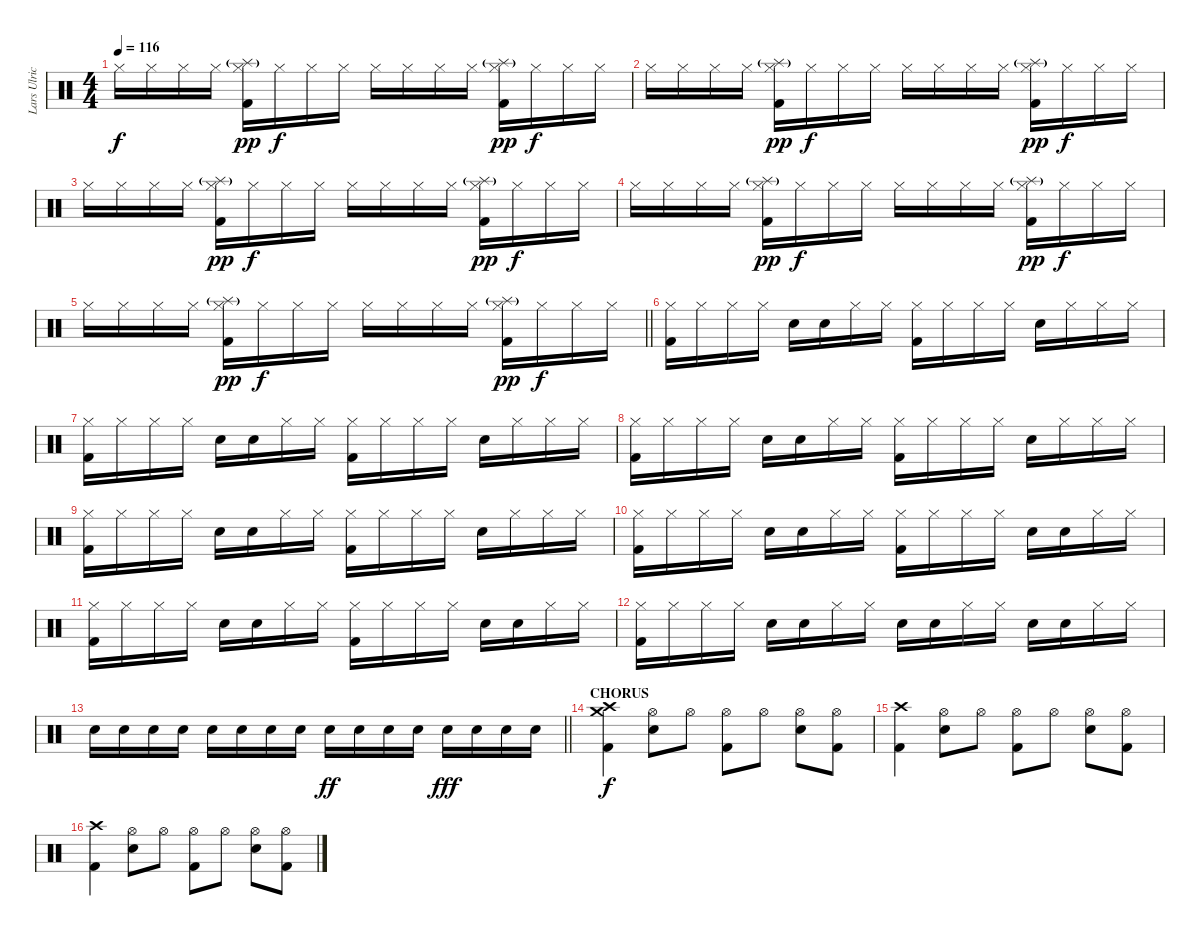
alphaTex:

\track ("Lars Ulrich - drums" "Lars Ulric") {instrument percussion}
\staff {score}
\articulation defaults
\ts (4 4)
\tempo 116
\clef neutral
\ks c "Hi-Hat (closed)".16{dy f} "Hi-Hat (closed)".16 "Hi-Hat (closed)".16 "Hi-Hat (closed)".16
("Splash (hit)"{g} "Hi-Hat (closed)" "Kick (hit) 2").16{dy pp} "Hi-Hat (closed)".16{dy f} "Hi-Hat (closed)".16 "Hi-Hat (closed)".16 "Hi-Hat (closed)".16 "Hi-Hat (closed)".16 "Hi-Hat (closed)".16 "Hi-Hat (closed)".16 ("Splash (hit)"{g} "Hi-Hat (closed)" "Kick (hit) 2").16{dy pp} "Hi-Hat (closed)".16{dy f} "Hi-Hat (closed)".16 "Hi-Hat (closed)".16 |
"Hi-Hat (closed)".16 "Hi-Hat (closed)".16 "Hi-Hat (closed)".16 "Hi-Hat (closed)".16 ("Splash (hit)"{g} "Hi-Hat (closed)" "Kick (hit) 2").16{dy pp} "Hi-Hat (closed)".16{dy f} "Hi-Hat (closed)".16 "Hi-Hat (closed)".16 "Hi-Hat (closed)".16 "Hi-Hat (closed)".16 "Hi-Hat (closed)".16 "Hi-Hat (closed)".16 ("Splash (hit)"{g} "Hi-Hat (closed)" "Kick (hit) 2").16{dy pp} "Hi-Hat (closed)".16{dy f} "Hi-Hat (closed)".16 "Hi-Hat (closed)".16 |
"Hi-Hat (closed)".16 "Hi-Hat (closed)".16 "Hi-Hat (closed)".16 "Hi-Hat (closed)".16 ("Splash (hit)"{g} "Hi-Hat (closed)" "Kick (hit) 2").16{dy pp} "Hi-Hat (closed)".16{dy f} "Hi-Hat (closed)".16 "Hi-Hat (closed)".16 "Hi-Hat (closed)".16 "Hi-Hat (closed)".16 "Hi-Hat (closed)".16 "Hi-Hat (closed)".16 ("Splash (hit)"{g} "Hi-Hat (closed)" "Kick (hit) 2").16{dy pp} "Hi-Hat (closed)".16{dy f} "Hi-Hat (closed)".16 "Hi-Hat (closed)".16 |
"Hi-Hat (closed)".16 "Hi-Hat (closed)".16 "Hi-Hat (closed)".16 "Hi-Hat (closed)".16 ("Splash (hit)"{g} "Hi-Hat (closed)" "Kick (hit) 2").16{dy pp} "Hi-Hat (closed)".16{dy f} "Hi-Hat (closed)".16 "Hi-Hat (closed)".16 "Hi-Hat (closed)".16 "Hi-Hat (closed)".16 "Hi-Hat (closed)".16 "Hi-Hat (closed)".16 ("Splash (hit)"{g} "Hi-Hat (closed)" "Kick (hit) 2").16{dy pp} "Hi-Hat (closed)".16{dy f} "Hi-Hat (closed)".16 "Hi-Hat (closed)".16 |
\barLineRight lightlight "Hi-Hat (closed)".16 "Hi-Hat (closed)".16 "Hi-Hat (closed)".16 "Hi-Hat (closed)".16
("Splash (hit)"{g} "Hi-Hat (closed)" "Kick (hit) 2").16{dy pp} "Hi-Hat (closed)".16{dy f} "Hi-Hat (closed)".16 "Hi-Hat (closed)".16 "Hi-Hat (closed)".16 "Hi-Hat (closed)".16 "Hi-Hat (closed)".16 "Hi-Hat (closed)".16 ("Splash (hit)"{g} "Hi-Hat (closed)" "Kick (hit) 2").16{dy pp} "Hi-Hat (closed)".16{dy f} "Hi-Hat (closed)".16 "Hi-Hat (closed)".16 |
\section ("" "")
("Hi-Hat (closed)" "Kick (hit) 2").16 "Hi-Hat (closed)".16 "Hi-Hat (closed)".16 "Hi-Hat (closed)".16 "Snare (hit) 2".16 "Snare (hit) 2".16 "Hi-Hat (closed)".16 "Hi-Hat (closed)".16 ("Hi-Hat (closed)" "Kick (hit) 2").16 "Hi-Hat (closed)".16 "Hi-Hat (closed)".16 "Hi-Hat (closed)".16 "Snare (hit) 2".16 "Hi-Hat (closed)".16 "Hi-Hat (closed)".16 "Hi-Hat (closed)".16 |
("Hi-Hat (closed)" "Kick (hit) 2").16 "Hi-Hat (closed)".16 "Hi-Hat (closed)".16 "Hi-Hat (closed)".16 "Snare (hit) 2".16 "Snare (hit) 2".16 "Hi-Hat (closed)".16 "Hi-Hat (closed)".16 ("Hi-Hat (closed)" "Kick (hit) 2").16 "Hi-Hat (closed)".16 "Hi-Hat (closed)".16 "Hi-Hat (closed)".16 "Snare (hit) 2".16 "Hi-Hat (closed)".16 "Hi-Hat (closed)".16 "Hi-Hat (closed)".16 |
("Hi-Hat (closed)" "Kick (hit) 2").16 "Hi-Hat (closed)".16 "Hi-Hat (closed)".16 "Hi-Hat (closed)".16 "Snare (hit) 2".16 "Snare (hit) 2".16 "Hi-Hat (closed)".16 "Hi-Hat (closed)".16 ("Hi-Hat (closed)" "Kick (hit) 2").16 "Hi-Hat (closed)".16 "Hi-Hat (closed)".16 "Hi-Hat (closed)".16 "Snare (hit) 2".16 "Hi-Hat (closed)".16 "Hi-Hat (closed)".16 "Hi-Hat (closed)".16 |
("Hi-Hat (closed)" "Kick (hit) 2").16 "Hi-Hat (closed)".16 "Hi-Hat (closed)".16 "Hi-Hat (closed)".16 "Snare (hit) 2".16 "Snare (hit) 2".16 "Hi-Hat (closed)".16 "Hi-Hat (closed)".16 ("Hi-Hat (closed)" "Kick (hit) 2").16 "Hi-Hat (closed)".16 "Hi-Hat (closed)".16 "Hi-Hat (closed)".16 "Snare (hit) 2".16 "Hi-Hat (closed)".16 "Hi-Hat (closed)".16 "Hi-Hat (closed)".16 |
("Hi-Hat (closed)" "Kick (hit) 2").16 "Hi-Hat (closed)".16 "Hi-Hat (closed)".16 "Hi-Hat (closed)".16 "Snare (hit) 2".16 "Snare (hit) 2".16 "Hi-Hat (closed)".16 "Hi-Hat (closed)".16 ("Hi-Hat (closed)" "Kick (hit) 2").16 "Hi-Hat (closed)".16 "Hi-Hat (closed)".16 "Hi-Hat (closed)".16 "Snare (hit) 2".16 "Snare (hit) 2".16 "Hi-Hat (closed)".16 "Hi-Hat (closed)".16 |
("Hi-Hat (closed)" "Kick (hit) 2").16 "Hi-Hat (closed)".16 "Hi-Hat (closed)".16 "Hi-Hat (closed)".16 "Snare (hit) 2".16 "Snare (hit) 2".16 "Hi-Hat (closed)".16 "Hi-Hat (closed)".16 ("Hi-Hat (closed)" "Kick (hit) 2").16 "Hi-Hat (closed)".16 "Hi-Hat (closed)".16 "Hi-Hat (closed)".16 "Snare (hit) 2".16 "Snare (hit) 2".16 "Hi-Hat (closed)".16 "Hi-Hat (closed)".16 |
("Hi-Hat (closed)" "Kick (hit) 2").16 "Hi-Hat (closed)".16 "Hi-Hat (closed)".16 "Hi-Hat (closed)".16 "Snare (hit) 2".16 "Snare (hit) 2".16 "Hi-Hat (closed)".16 "Hi-Hat (closed)".16 "Snare (hit) 2".16 "Snare (hit) 2".16 "Hi-Hat (closed)".16 "Hi-Hat (closed)".16 "Snare (hit) 2".16 "Snare (hit) 2".16 "Hi-Hat (closed)".16 "Hi-Hat (closed)".16 |
\barLineRight lightlight "Snare (hit) 2".16 "Snare (hit) 2".16 "Snare (hit) 2".16 "Snare (hit) 2".16 "Snare (hit) 2".16 "Snare (hit) 2".16 "Snare (hit) 2".16 "Snare (hit) 2".16 "Snare (hit) 2".16{dy ff} "Snare (hit) 2".16 "Snare (hit) 2".16 "Snare (hit) 2".16 "Snare (hit) 2".16{dy fff} "Snare (hit) 2".16 "Snare (hit) 2".16 "Snare (hit) 2".16
|
\section ("" "CHORUS")
("Crash high (hit)" "Crash medium (hit)" "Kick (hit) 2").4{dy f} ("Hi-Hat (open)" "Snare (hit) 2").8 "Hi-Hat (open)".8 ("Hi-Hat (open)" "Kick (hit) 2").8 "Hi-Hat (open)".8 ("Hi-Hat (open)" "Snare (hit) 2").8 ("Hi-Hat (open)" "Kick (hit) 2").8 |
("Crash high (hit)" "Kick (hit) 2").4 ("Hi-Hat (open)" "Snare (hit) 2").8 "Hi-Hat (open)".8 ("Hi-Hat (open)" "Kick (hit) 2").8 "Hi-Hat (open)".8 ("Hi-Hat (open)" "Snare (hit) 2").8 ("Hi-Hat (open)" "Kick (hit) 2").8 |
("Crash high (hit)" "Kick (hit) 2").4 ("Hi-Hat (open)" "Snare (hit) 2").8 "Hi-Hat (open)".8 ("Hi-Hat (open)" "Kick (hit) 2").8 "Hi-Hat (open)".8 ("Hi-Hat (open)" "Snare (hit) 2").8 ("Hi-Hat (open)" "Kick (hit) 2").8
